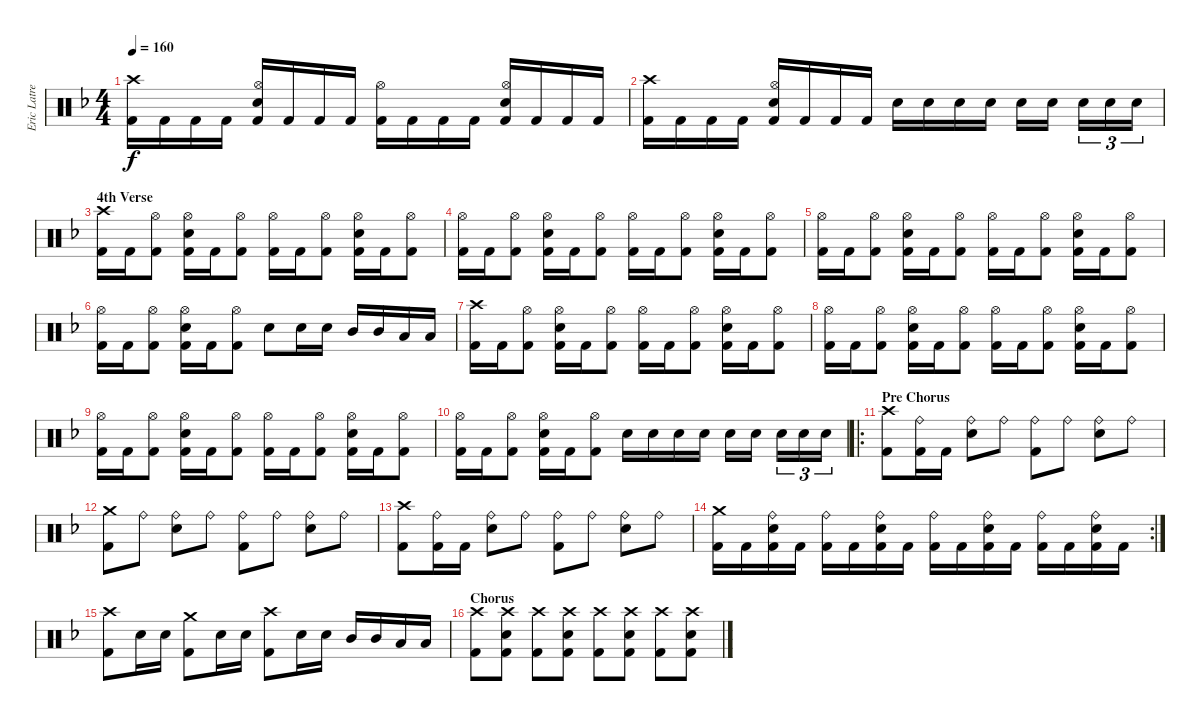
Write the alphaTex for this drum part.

\track ("Eric Latreille" "Eric Latre") {instrument percussion}
\staff {score}
\articulation defaults
\ts (4 4)
\tempo 160
\clef neutral
\ks dminor
("Crash high (hit)" "Kick (hit) 2").16{dy f} "Kick (hit) 2".16 "Kick (hit) 2".16 "Kick (hit) 2".16 ("Hi-Hat (open)" "Snare (hit) 2" "Kick (hit) 2").16 "Kick (hit) 2".16 "Kick (hit) 2".16 "Kick (hit) 2".16 ("Hi-Hat (open)" "Kick (hit) 2").16 "Kick (hit) 2".16 "Kick (hit) 2".16 "Kick (hit) 2".16 ("Hi-Hat (open)" "Snare (hit) 2" "Kick (hit) 2").16 "Kick (hit) 2".16 "Kick (hit) 2".16 "Kick (hit) 2".16 |
("Crash high (hit)" "Kick (hit) 2").16 "Kick (hit) 2".16 "Kick (hit) 2".16 "Kick (hit) 2".16 ("Hi-Hat (open)" "Snare (hit) 2" "Kick (hit) 2").16 "Kick (hit) 2".16 "Kick (hit) 2".16 "Kick (hit) 2".16 "Snare (hit) 2".16 "Snare (hit) 2".16 "Snare (hit) 2".16 "Snare (hit) 2".16 "Snare (hit) 2".16 "Snare (hit) 2".16 "Snare (hit) 2".16{tu (3 2)} "Snare (hit) 2".16{tu (3 2)} "Snare (hit) 2".16{tu (3 2)} |
\section ("" "4th Verse")
("Crash high (hit)" "Kick (hit) 2").16 "Kick (hit) 2".16 ("Hi-Hat (open)" "Kick (hit) 2").8 ("Hi-Hat (open)" "Snare (hit) 2" "Kick (hit) 2").16 "Kick (hit) 2".16 ("Hi-Hat (open)" "Kick (hit) 2").8 ("Hi-Hat (open)" "Kick (hit) 2").16 "Kick (hit) 2".16 ("Hi-Hat (open)" "Kick (hit) 2").8 ("Hi-Hat (open)" "Snare (hit) 2" "Kick (hit) 2").16 "Kick (hit) 2".16 ("Hi-Hat (open)" "Kick (hit) 2").8 |
("Hi-Hat (open)" "Kick (hit) 2").16 "Kick (hit) 2".16 ("Hi-Hat (open)" "Kick (hit) 2").8 ("Hi-Hat (open)" "Snare (hit) 2" "Kick (hit) 2").16 "Kick (hit) 2".16 ("Hi-Hat (open)" "Kick (hit) 2").8 ("Hi-Hat (open)" "Kick (hit) 2").16 "Kick (hit) 2".16 ("Hi-Hat (open)" "Kick (hit) 2").8 ("Hi-Hat (open)" "Snare (hit) 2" "Kick (hit) 2").16 "Kick (hit) 2".16 ("Hi-Hat (open)" "Kick (hit) 2").8 |
("Hi-Hat (open)" "Kick (hit) 2").16 "Kick (hit) 2".16 ("Hi-Hat (open)" "Kick (hit) 2").8 ("Hi-Hat (open)" "Snare (hit) 2" "Kick (hit) 2").16 "Kick (hit) 2".16 ("Hi-Hat (open)" "Kick (hit) 2").8 ("Hi-Hat (open)" "Kick (hit) 2").16 "Kick (hit) 2".16 ("Hi-Hat (open)" "Kick (hit) 2").8 ("Hi-Hat (open)" "Snare (hit) 2" "Kick (hit) 2").16 "Kick (hit) 2".16 ("Hi-Hat (open)" "Kick (hit) 2").8 |
("Hi-Hat (open)" "Kick (hit) 2").16 "Kick (hit) 2".16 ("Hi-Hat (open)" "Kick (hit) 2").8 ("Hi-Hat (open)" "Snare (hit) 2" "Kick (hit) 2").16 "Kick (hit) 2".16 ("Hi-Hat (open)" "Kick (hit) 2").8 "Snare (hit) 2".8 "Snare (hit) 2".16 "Snare (hit) 2".16 "Mid Tom (hit)".16 "Mid Tom (hit)".16 "Low Tom (hit)".16 "Low Tom (hit)".16 |
("Crash high (hit)" "Kick (hit) 2").16 "Kick (hit) 2".16 ("Hi-Hat (open)" "Kick (hit) 2").8 ("Hi-Hat (open)" "Snare (hit) 2" "Kick (hit) 2").16 "Kick (hit) 2".16 ("Hi-Hat (open)" "Kick (hit) 2").8 ("Hi-Hat (open)" "Kick (hit) 2").16 "Kick (hit) 2".16 ("Hi-Hat (open)" "Kick (hit) 2").8 ("Hi-Hat (open)" "Snare (hit) 2" "Kick (hit) 2").16 "Kick (hit) 2".16 ("Hi-Hat (open)" "Kick (hit) 2").8 |
("Hi-Hat (open)" "Kick (hit) 2").16 "Kick (hit) 2".16 ("Hi-Hat (open)" "Kick (hit) 2").8 ("Hi-Hat (open)" "Snare (hit) 2" "Kick (hit) 2").16 "Kick (hit) 2".16 ("Hi-Hat (open)" "Kick (hit) 2").8 ("Hi-Hat (open)" "Kick (hit) 2").16 "Kick (hit) 2".16 ("Hi-Hat (open)" "Kick (hit) 2").8 ("Hi-Hat (open)" "Snare (hit) 2" "Kick (hit) 2").16 "Kick (hit) 2".16 ("Hi-Hat (open)" "Kick (hit) 2").8 |
("Hi-Hat (open)" "Kick (hit) 2").16 "Kick (hit) 2".16 ("Hi-Hat (open)" "Kick (hit) 2").8 ("Hi-Hat (open)" "Snare (hit) 2" "Kick (hit) 2").16 "Kick (hit) 2".16 ("Hi-Hat (open)" "Kick (hit) 2").8 ("Hi-Hat (open)" "Kick (hit) 2").16 "Kick (hit) 2".16 ("Hi-Hat (open)" "Kick (hit) 2").8 ("Hi-Hat (open)" "Snare (hit) 2" "Kick (hit) 2").16 "Kick (hit) 2".16 ("Hi-Hat (open)" "Kick (hit) 2").8 |
("Hi-Hat (open)" "Kick (hit) 2").16 "Kick (hit) 2".16 ("Hi-Hat (open)" "Kick (hit) 2").8 ("Hi-Hat (open)" "Snare (hit) 2" "Kick (hit) 2").16 "Kick (hit) 2".16 ("Hi-Hat (open)" "Kick (hit) 2").8 "Snare (hit) 2".16 "Snare (hit) 2".16 "Snare (hit) 2".16 "Snare (hit) 2".16 "Snare (hit) 2".16 "Snare (hit) 2".16 "Snare (hit) 2".16{tu (3 2)} "Snare (hit) 2".16{tu (3 2)} "Snare (hit) 2".16{tu (3 2)} |
\ro
\section ("" "Pre Chorus")
("Crash high (hit)" "Kick (hit) 2").8 ("Ride (bell)" "Kick (hit) 2").16 "Kick (hit) 2".16 ("Ride (bell)" "Snare (hit) 2").8 "Ride (bell)".8 ("Ride (bell)" "Kick (hit) 2").8 "Ride (bell)".8 ("Ride (bell)" "Snare (hit) 2").8 "Ride (bell)".8 |
("Crash medium (hit)" "Kick (hit) 2").8 "Ride (bell)".8 ("Ride (bell)" "Snare (hit) 2").8 "Ride (bell)".8 ("Ride (bell)" "Kick (hit) 2").8 "Ride (bell)".8 ("Ride (bell)" "Snare (hit) 2").8 "Ride (bell)".8 |
("Crash high (hit)" "Kick (hit) 2").8 ("Ride (bell)" "Kick (hit) 2").16 "Kick (hit) 2".16 ("Ride (bell)" "Snare (hit) 2").8 "Ride (bell)".8 ("Ride (bell)" "Kick (hit) 2").8 "Ride (bell)".8 ("Ride (bell)" "Snare (hit) 2").8 "Ride (bell)".8 |
\rc 2
("Crash medium (hit)" "Kick (hit) 2").16 "Kick (hit) 2".16 ("Ride (bell)" "Snare (hit) 2" "Kick (hit) 2").16 "Kick (hit) 2".16 ("Ride (bell)" "Kick (hit) 2").16 "Kick (hit) 2".16 ("Ride (bell)" "Snare (hit) 2" "Kick (hit) 2").16 "Kick (hit) 2".16 ("Ride (bell)" "Kick (hit) 2").16 "Kick (hit) 2".16 ("Ride (bell)" "Snare (hit) 2" "Kick (hit) 2").16 "Kick (hit) 2".16 ("Ride (bell)" "Kick (hit) 2").16 "Kick (hit) 2".16 ("Ride (bell)" "Snare (hit) 2" "Kick (hit) 2").16 "Kick (hit) 2".16 |
("Crash high (hit)" "Kick (hit) 2").8 "Snare (hit) 2".16 "Snare (hit) 2".16 ("Crash medium (hit)" "Kick (hit) 2").8 "Snare (hit) 2".16 "Snare (hit) 2".16 ("Crash high (hit)" "Kick (hit) 2").8 "Snare (hit) 2".16 "Snare (hit) 2".16 "Mid Tom (hit)".16 "Mid Tom (hit)".16 "Low Tom (hit)".16 "Low Tom (hit)".16 |
\section ("" "Chorus")
("Crash high (hit)" "Kick (hit) 2").8 ("Crash high (hit)" "Snare (hit) 2" "Kick (hit) 2").8 ("Crash high (hit)" "Kick (hit) 2").8 ("Crash high (hit)" "Snare (hit) 2" "Kick (hit) 2").8 ("Crash high (hit)" "Kick (hit) 2").8 ("Crash high (hit)" "Snare (hit) 2" "Kick (hit) 2").8 ("Crash high (hit)" "Kick (hit) 2").8 ("Crash high (hit)" "Snare (hit) 2" "Kick (hit) 2").8
